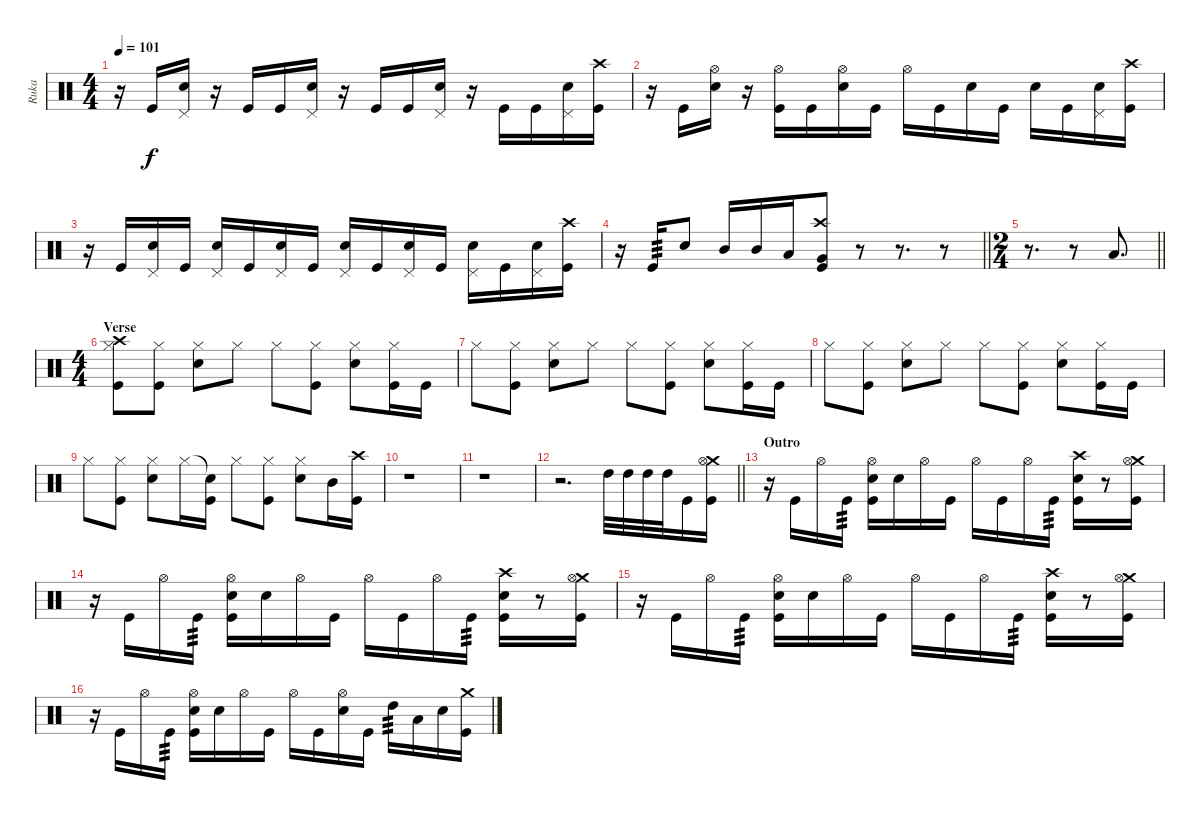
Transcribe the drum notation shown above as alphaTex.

\track ("Ruka" "Ruka") {instrument percussion}
\staff {score}
\articulation defaults
\ts (4 4)
\tempo 101
\clef neutral
\ks c
r.16{dy f} "Kick (hit)".16 ("Pedal Hi-Hat (hit)" "Snare (hit) 2").16 r.16 "Kick (hit)".16 "Kick (hit)".16 ("Pedal Hi-Hat (hit)" "Snare (hit) 2").16 r.16 "Kick (hit)".16 "Kick (hit)".16 ("Pedal Hi-Hat (hit)" "Snare (hit) 2").16 r.16 "Kick (hit)".16 "Kick (hit)".16 ("Pedal Hi-Hat (hit)" "Snare (hit) 2").16 ("Crash high (hit)" "Kick (hit)").16 |
r.16 "Kick (hit)".16 ("Hi-Hat (open)" "Snare (hit) 2").16 r.16 ("Hi-Hat (open)" "Kick (hit)").16 "Kick (hit)".16 ("Hi-Hat (open)" "Snare (hit) 2").16 "Kick (hit)".16 "Hi-Hat (open)".16 "Kick (hit)".16 "Snare (hit) 2".16 "Kick (hit)".16 "Snare (hit) 2".16 "Kick (hit)".16 ("Pedal Hi-Hat (hit)" "Snare (hit) 2").16 ("Crash high (hit)" "Kick (hit)").16 |
r.16 "Kick (hit)".16 ("Pedal Hi-Hat (hit)" "Snare (hit) 2").16 "Kick (hit)".16 ("Pedal Hi-Hat (hit)" "Snare (hit) 2").16 "Kick (hit)".16 ("Pedal Hi-Hat (hit)" "Snare (hit) 2").16 "Kick (hit)".16 ("Pedal Hi-Hat (hit)" "Snare (hit) 2").16 "Kick (hit)".16 ("Pedal Hi-Hat (hit)" "Snare (hit) 2").16 "Kick (hit)".16 ("Pedal Hi-Hat (hit)" "Snare (hit) 2").16 "Kick (hit)".16 ("Pedal Hi-Hat (hit)" "Snare (hit) 2").16 ("Crash high (hit)" "Kick (hit)").16 |
\barLineRight lightlight
r.16 "Kick (hit)".16{tp 3} "Snare (hit) 2".8 "Mid Tom (hit)".16 "Mid Tom (hit)".16 "Low Tom (hit)".16 ("Crash high (hit)" "Very Low Tom (hit)" "Kick (hit)").8 r.8 r.8{d} r.8 |
\ts (2 4)
\barLineRight lightlight
r.8{d} r.8 "Low Floor Tom (hit)".8{d} |
\ts (4 4)
\section ("" "Verse")
("Crash high (hit)" "Hi-Hat (closed)" "Kick (hit)").8 ("Hi-Hat (closed)" "Kick (hit)").8 ("Hi-Hat (closed)" "Snare (hit) 2").8 "Hi-Hat (closed)".8 "Hi-Hat (closed)".8 ("Hi-Hat (closed)" "Kick (hit)").8 ("Hi-Hat (closed)" "Snare (hit) 2").8 ("Hi-Hat (closed)" "Kick (hit)").16 "Kick (hit)".16 |
"Hi-Hat (closed)".8 ("Hi-Hat (closed)" "Kick (hit)").8 ("Hi-Hat (closed)" "Snare (hit) 2").8 "Hi-Hat (closed)".8 "Hi-Hat (closed)".8 ("Hi-Hat (closed)" "Kick (hit)").8 ("Hi-Hat (closed)" "Snare (hit) 2").8 ("Hi-Hat (closed)" "Kick (hit)").16 "Kick (hit)".16 |
"Hi-Hat (closed)".8 ("Hi-Hat (closed)" "Kick (hit)").8 ("Hi-Hat (closed)" "Snare (hit) 2").8 "Hi-Hat (closed)".8 "Hi-Hat (closed)".8 ("Hi-Hat (closed)" "Kick (hit)").8 ("Hi-Hat (closed)" "Snare (hit) 2").8 ("Hi-Hat (closed)" "Kick (hit)").16 "Kick (hit)".16 |
"Hi-Hat (closed)".8 ("Hi-Hat (closed)" "Kick (hit)").8 ("Hi-Hat (closed)" "Snare (hit) 2").8 "Hi-Hat (closed)".16 ("Snare (hit)"{t} "Kick (hit)").16 "Hi-Hat (closed)".8 ("Hi-Hat (closed)" "Kick (hit)").8 ("Hi-Hat (closed)" "Snare (hit) 2").8 "Mid Tom (hit)".16 ("Crash high (hit)" "Kick (hit)").16 |
r.1 |
r.1 |
\barLineRight lightlight
r.2{d} "High Tom (hit)".32 "High Tom (hit)".32 "High Tom (hit)".32 "High Tom (hit)".32 "Kick (hit)".16 ("Crash medium (hit)" "Hi-Hat (open)" "Kick (hit)").16 |
\section ("" "Outro")
r.16 "Kick (hit)".16 "Hi-Hat (open)".16 "Kick (hit)".16{tp 3} ("Hi-Hat (open)" "Snare (hit) 2" "Kick (hit)").16 "Snare (hit) 2".16 "Hi-Hat (open)".16 "Kick (hit)".16 "Hi-Hat (open)".16 "Kick (hit)".16 "Hi-Hat (open)".16 "Kick (hit)".16{tp 3} ("Crash high (hit)" "Snare (hit) 2" "Kick (hit)").16 r.8 ("Crash medium (hit)" "Hi-Hat (open)" "Kick (hit)").16 |
r.16 "Kick (hit)".16 "Hi-Hat (open)".16 "Kick (hit)".16{tp 3} ("Hi-Hat (open)" "Snare (hit) 2" "Kick (hit)").16 "Snare (hit) 2".16 "Hi-Hat (open)".16 "Kick (hit)".16 "Hi-Hat (open)".16 "Kick (hit)".16 "Hi-Hat (open)".16 "Kick (hit)".16{tp 3} ("Crash high (hit)" "Snare (hit) 2" "Kick (hit)").16 r.8 ("Crash medium (hit)" "Hi-Hat (open)" "Kick (hit)").16 |
r.16 "Kick (hit)".16 "Hi-Hat (open)".16 "Kick (hit)".16{tp 3} ("Hi-Hat (open)" "Snare (hit) 2" "Kick (hit)").16 "Snare (hit) 2".16 "Hi-Hat (open)".16 "Kick (hit)".16 "Hi-Hat (open)".16 "Kick (hit)".16 "Hi-Hat (open)".16 "Kick (hit)".16{tp 3} ("Crash high (hit)" "Snare (hit) 2" "Kick (hit)").16 r.8 ("Crash medium (hit)" "Hi-Hat (open)" "Kick (hit)").16 |
r.16 "Kick (hit)".16 "Hi-Hat (open)".16 "Kick (hit)".16{tp 3} ("Hi-Hat (open)" "Snare (hit) 2" "Kick (hit)").16 "Snare (hit) 2".16 "Hi-Hat (open)".16 "Kick (hit)".16 "Hi-Hat (open)".16 "Kick (hit)".16 ("Hi-Hat (open)" "Snare (hit) 2").16 "Kick (hit)".16 "High Tom (hit)".16{tp 3} "Low Tom (hit)".16 "Snare (hit) 2".16 ("Crash medium (hit)" "Kick (hit)").16
